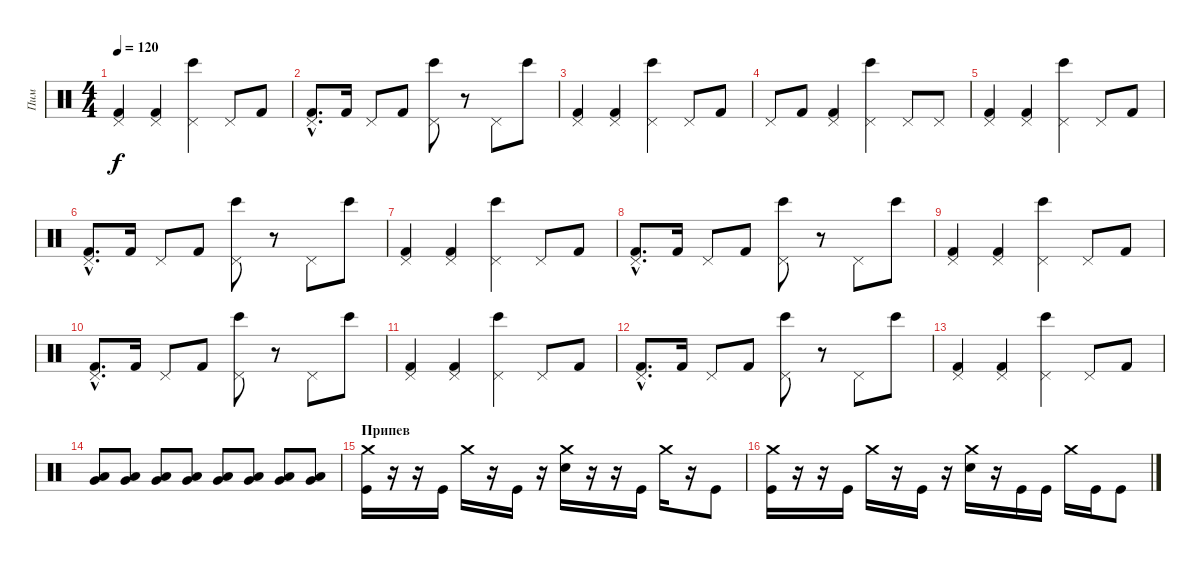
\track ("Пим" "Пим") {instrument percussion}
\staff {score}
\articulation defaults
\ts (4 4)
\tempo 120
\clef neutral
\ks c
("Pedal Hi-Hat (hit)" "Kick (hit) 2").4{dy f} ("Pedal Hi-Hat (hit)" "Kick (hit) 2").4 ("Pedal Hi-Hat (hit)" "Bongo High (hit)").4 "Pedal Hi-Hat (hit)".8 "Kick (hit) 2".8 |
("Pedal Hi-Hat (hit)"{hac} "Kick (hit) 2"{hac}).8{d} "Kick (hit) 2".16 "Pedal Hi-Hat (hit)".8 "Kick (hit) 2".8 ("Pedal Hi-Hat (hit)" "Bongo High (hit)").8 r.8 "Pedal Hi-Hat (hit)".8 "Bongo High (hit)".8 |
("Pedal Hi-Hat (hit)" "Kick (hit) 2").4 ("Pedal Hi-Hat (hit)" "Kick (hit) 2").4 ("Pedal Hi-Hat (hit)" "Bongo High (hit)").4 "Pedal Hi-Hat (hit)".8 "Kick (hit) 2".8 |
"Pedal Hi-Hat (hit)".8 "Kick (hit) 2".8 ("Pedal Hi-Hat (hit)" "Kick (hit) 2").4 ("Pedal Hi-Hat (hit)" "Bongo High (hit)").4 "Pedal Hi-Hat (hit)".8 "Pedal Hi-Hat (hit)".8 |
("Pedal Hi-Hat (hit)" "Kick (hit) 2").4 ("Pedal Hi-Hat (hit)" "Kick (hit) 2").4 ("Pedal Hi-Hat (hit)" "Bongo High (hit)").4 "Pedal Hi-Hat (hit)".8 "Kick (hit) 2".8 |
("Pedal Hi-Hat (hit)"{hac} "Kick (hit) 2"{hac}).8{d} "Kick (hit) 2".16 "Pedal Hi-Hat (hit)".8 "Kick (hit) 2".8 ("Pedal Hi-Hat (hit)" "Bongo High (hit)").8 r.8 "Pedal Hi-Hat (hit)".8 "Bongo High (hit)".8 |
("Pedal Hi-Hat (hit)" "Kick (hit) 2").4 ("Pedal Hi-Hat (hit)" "Kick (hit) 2").4 ("Pedal Hi-Hat (hit)" "Bongo High (hit)").4 "Pedal Hi-Hat (hit)".8 "Kick (hit) 2".8 |
("Pedal Hi-Hat (hit)"{hac} "Kick (hit) 2"{hac}).8{d} "Kick (hit) 2".16 "Pedal Hi-Hat (hit)".8 "Kick (hit) 2".8 ("Pedal Hi-Hat (hit)" "Bongo High (hit)").8 r.8 "Pedal Hi-Hat (hit)".8 "Bongo High (hit)".8 |
("Pedal Hi-Hat (hit)" "Kick (hit) 2").4 ("Pedal Hi-Hat (hit)" "Kick (hit) 2").4 ("Pedal Hi-Hat (hit)" "Bongo High (hit)").4 "Pedal Hi-Hat (hit)".8 "Kick (hit) 2".8 |
("Pedal Hi-Hat (hit)"{hac} "Kick (hit) 2"{hac}).8{d} "Kick (hit) 2".16 "Pedal Hi-Hat (hit)".8 "Kick (hit) 2".8 ("Pedal Hi-Hat (hit)" "Bongo High (hit)").8 r.8 "Pedal Hi-Hat (hit)".8 "Bongo High (hit)".8 |
("Pedal Hi-Hat (hit)" "Kick (hit) 2").4 ("Pedal Hi-Hat (hit)" "Kick (hit) 2").4 ("Pedal Hi-Hat (hit)" "Bongo High (hit)").4 "Pedal Hi-Hat (hit)".8 "Kick (hit) 2".8 |
("Pedal Hi-Hat (hit)"{hac} "Kick (hit) 2"{hac}).8{d} "Kick (hit) 2".16 "Pedal Hi-Hat (hit)".8 "Kick (hit) 2".8 ("Pedal Hi-Hat (hit)" "Bongo High (hit)").8 r.8 "Pedal Hi-Hat (hit)".8 "Bongo High (hit)".8 |
("Pedal Hi-Hat (hit)" "Kick (hit) 2").4 ("Pedal Hi-Hat (hit)" "Kick (hit) 2").4 ("Pedal Hi-Hat (hit)" "Bongo High (hit)").4 "Pedal Hi-Hat (hit)".8 "Kick (hit) 2".8 |
("Very Low Tom (hit)" "Low Floor Tom (hit)").8 ("Very Low Tom (hit)" "Low Floor Tom (hit)").8 ("Very Low Tom (hit)" "Low Floor Tom (hit)").8 ("Very Low Tom (hit)" "Low Floor Tom (hit)").8 ("Very Low Tom (hit)" "Low Floor Tom (hit)").8 ("Very Low Tom (hit)" "Low Floor Tom (hit)").8 ("Very Low Tom (hit)" "Low Floor Tom (hit)").8 ("Very Low Tom (hit)" "Low Floor Tom (hit)").8 |
\section ("" "Припев")
("Crash medium (hit)" "Kick (hit)").16 r.16 r.16 "Kick (hit)".16 "Crash medium (hit)".16 r.16 "Kick (hit)".16 r.16 ("Crash medium (hit)" "Snare (hit) 2").16 r.16 r.16 "Kick (hit)".16 "Crash medium (hit)".16 r.16 "Kick (hit)".8 |
("Crash medium (hit)" "Kick (hit)").16 r.16 r.16 "Kick (hit)".16 "Crash medium (hit)".16 r.16 "Kick (hit)".16 r.16 ("Crash medium (hit)" "Snare (hit) 2").16 r.16 "Kick (hit)".16 "Kick (hit)".16 "Crash medium (hit)".16 "Kick (hit)".16 "Kick (hit)".8
